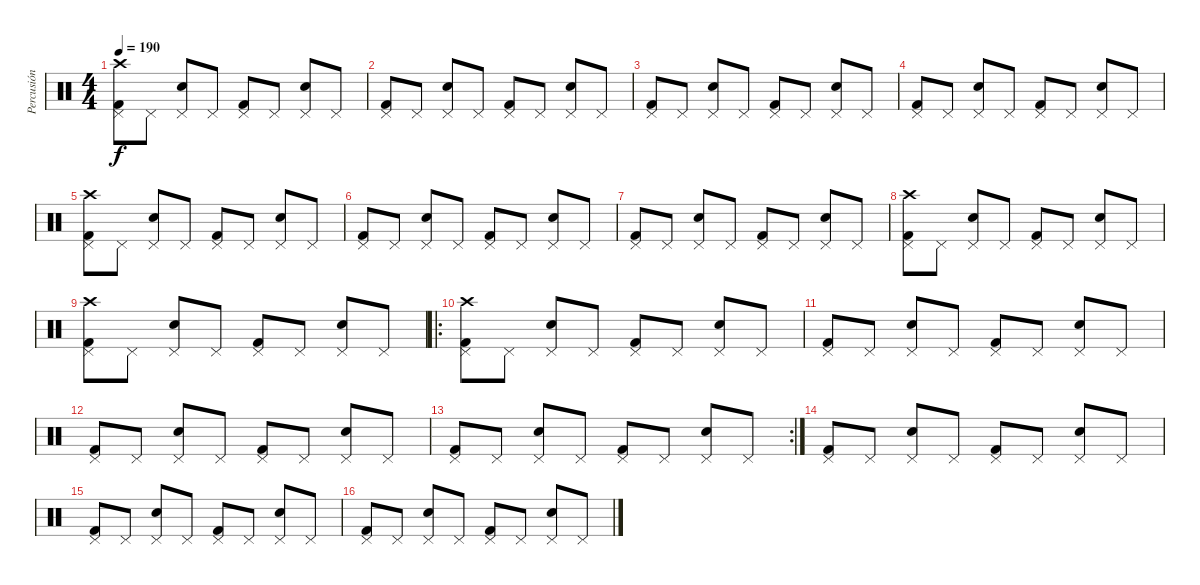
\track ("Percusión" "Percusión") {instrument percussion}
\staff {score}
\articulation defaults
\ts (4 4)
\tempo 190
\clef neutral
\ks c
("Pedal Hi-Hat (hit)" "Kick (hit) 2" "Crash high (hit)").8{dy f} "Pedal Hi-Hat (hit)".8 ("Pedal Hi-Hat (hit)" "Electric Snare (hit)").8 "Pedal Hi-Hat (hit)".8 ("Pedal Hi-Hat (hit)" "Kick (hit) 2").8 "Pedal Hi-Hat (hit)".8 ("Pedal Hi-Hat (hit)" "Electric Snare (hit)").8 "Pedal Hi-Hat (hit)".8 |
("Pedal Hi-Hat (hit)" "Kick (hit) 2").8 "Pedal Hi-Hat (hit)".8 ("Pedal Hi-Hat (hit)" "Electric Snare (hit)").8 "Pedal Hi-Hat (hit)".8 ("Pedal Hi-Hat (hit)" "Kick (hit) 2").8 "Pedal Hi-Hat (hit)".8 ("Pedal Hi-Hat (hit)" "Electric Snare (hit)").8 "Pedal Hi-Hat (hit)".8 |
("Pedal Hi-Hat (hit)" "Kick (hit) 2").8 "Pedal Hi-Hat (hit)".8 ("Pedal Hi-Hat (hit)" "Electric Snare (hit)").8 "Pedal Hi-Hat (hit)".8 ("Pedal Hi-Hat (hit)" "Kick (hit) 2").8 "Pedal Hi-Hat (hit)".8 ("Pedal Hi-Hat (hit)" "Electric Snare (hit)").8 "Pedal Hi-Hat (hit)".8 |
("Pedal Hi-Hat (hit)" "Kick (hit) 2").8 "Pedal Hi-Hat (hit)".8 ("Pedal Hi-Hat (hit)" "Electric Snare (hit)").8 "Pedal Hi-Hat (hit)".8 ("Pedal Hi-Hat (hit)" "Kick (hit) 2").8 "Pedal Hi-Hat (hit)".8 ("Pedal Hi-Hat (hit)" "Electric Snare (hit)").8 "Pedal Hi-Hat (hit)".8 |
("Pedal Hi-Hat (hit)" "Kick (hit) 2" "Crash high (hit)").8 "Pedal Hi-Hat (hit)".8 ("Pedal Hi-Hat (hit)" "Electric Snare (hit)").8 "Pedal Hi-Hat (hit)".8 ("Pedal Hi-Hat (hit)" "Kick (hit) 2").8 "Pedal Hi-Hat (hit)".8 ("Pedal Hi-Hat (hit)" "Electric Snare (hit)").8 "Pedal Hi-Hat (hit)".8 |
("Pedal Hi-Hat (hit)" "Kick (hit) 2").8 "Pedal Hi-Hat (hit)".8 ("Pedal Hi-Hat (hit)" "Electric Snare (hit)").8 "Pedal Hi-Hat (hit)".8 ("Pedal Hi-Hat (hit)" "Kick (hit) 2").8 "Pedal Hi-Hat (hit)".8 ("Pedal Hi-Hat (hit)" "Electric Snare (hit)").8 "Pedal Hi-Hat (hit)".8 |
("Pedal Hi-Hat (hit)" "Kick (hit) 2").8 "Pedal Hi-Hat (hit)".8 ("Pedal Hi-Hat (hit)" "Electric Snare (hit)").8 "Pedal Hi-Hat (hit)".8 ("Pedal Hi-Hat (hit)" "Kick (hit) 2").8 "Pedal Hi-Hat (hit)".8 ("Pedal Hi-Hat (hit)" "Electric Snare (hit)").8 "Pedal Hi-Hat (hit)".8 |
("Pedal Hi-Hat (hit)" "Kick (hit) 2" "Crash high (hit)").8 "Pedal Hi-Hat (hit)".8 ("Pedal Hi-Hat (hit)" "Electric Snare (hit)").8 "Pedal Hi-Hat (hit)".8 ("Pedal Hi-Hat (hit)" "Kick (hit) 2").8 "Pedal Hi-Hat (hit)".8 ("Pedal Hi-Hat (hit)" "Electric Snare (hit)").8 "Pedal Hi-Hat (hit)".8 |
("Pedal Hi-Hat (hit)" "Kick (hit) 2" "Crash high (hit)").8 "Pedal Hi-Hat (hit)".8 ("Pedal Hi-Hat (hit)" "Electric Snare (hit)").8 "Pedal Hi-Hat (hit)".8 ("Pedal Hi-Hat (hit)" "Kick (hit) 2").8 "Pedal Hi-Hat (hit)".8 ("Pedal Hi-Hat (hit)" "Electric Snare (hit)").8 "Pedal Hi-Hat (hit)".8 |
\ro
("Pedal Hi-Hat (hit)" "Kick (hit) 2" "Crash high (hit)").8 "Pedal Hi-Hat (hit)".8 ("Pedal Hi-Hat (hit)" "Electric Snare (hit)").8 "Pedal Hi-Hat (hit)".8 ("Pedal Hi-Hat (hit)" "Kick (hit) 2").8 "Pedal Hi-Hat (hit)".8 ("Pedal Hi-Hat (hit)" "Electric Snare (hit)").8 "Pedal Hi-Hat (hit)".8 |
("Pedal Hi-Hat (hit)" "Kick (hit) 2").8 "Pedal Hi-Hat (hit)".8 ("Pedal Hi-Hat (hit)" "Electric Snare (hit)").8 "Pedal Hi-Hat (hit)".8 ("Pedal Hi-Hat (hit)" "Kick (hit) 2").8 "Pedal Hi-Hat (hit)".8 ("Pedal Hi-Hat (hit)" "Electric Snare (hit)").8 "Pedal Hi-Hat (hit)".8 |
("Pedal Hi-Hat (hit)" "Kick (hit) 2").8 "Pedal Hi-Hat (hit)".8 ("Pedal Hi-Hat (hit)" "Electric Snare (hit)").8 "Pedal Hi-Hat (hit)".8 ("Pedal Hi-Hat (hit)" "Kick (hit) 2").8 "Pedal Hi-Hat (hit)".8 ("Pedal Hi-Hat (hit)" "Electric Snare (hit)").8 "Pedal Hi-Hat (hit)".8 |
\rc 2
("Pedal Hi-Hat (hit)" "Kick (hit) 2").8 "Pedal Hi-Hat (hit)".8 ("Pedal Hi-Hat (hit)" "Electric Snare (hit)").8 "Pedal Hi-Hat (hit)".8 ("Pedal Hi-Hat (hit)" "Kick (hit) 2").8 "Pedal Hi-Hat (hit)".8 ("Pedal Hi-Hat (hit)" "Electric Snare (hit)").8 "Pedal Hi-Hat (hit)".8 |
("Pedal Hi-Hat (hit)" "Kick (hit) 2").8 "Pedal Hi-Hat (hit)".8 ("Pedal Hi-Hat (hit)" "Electric Snare (hit)").8 "Pedal Hi-Hat (hit)".8 ("Pedal Hi-Hat (hit)" "Kick (hit) 2").8 "Pedal Hi-Hat (hit)".8 ("Pedal Hi-Hat (hit)" "Electric Snare (hit)").8 "Pedal Hi-Hat (hit)".8 |
("Pedal Hi-Hat (hit)" "Kick (hit) 2").8 "Pedal Hi-Hat (hit)".8 ("Pedal Hi-Hat (hit)" "Electric Snare (hit)").8 "Pedal Hi-Hat (hit)".8 ("Pedal Hi-Hat (hit)" "Kick (hit) 2").8 "Pedal Hi-Hat (hit)".8 ("Pedal Hi-Hat (hit)" "Electric Snare (hit)").8 "Pedal Hi-Hat (hit)".8 |
("Pedal Hi-Hat (hit)" "Kick (hit) 2").8 "Pedal Hi-Hat (hit)".8 ("Pedal Hi-Hat (hit)" "Electric Snare (hit)").8 "Pedal Hi-Hat (hit)".8 ("Pedal Hi-Hat (hit)" "Kick (hit) 2").8 "Pedal Hi-Hat (hit)".8 ("Pedal Hi-Hat (hit)" "Electric Snare (hit)").8 "Pedal Hi-Hat (hit)".8
